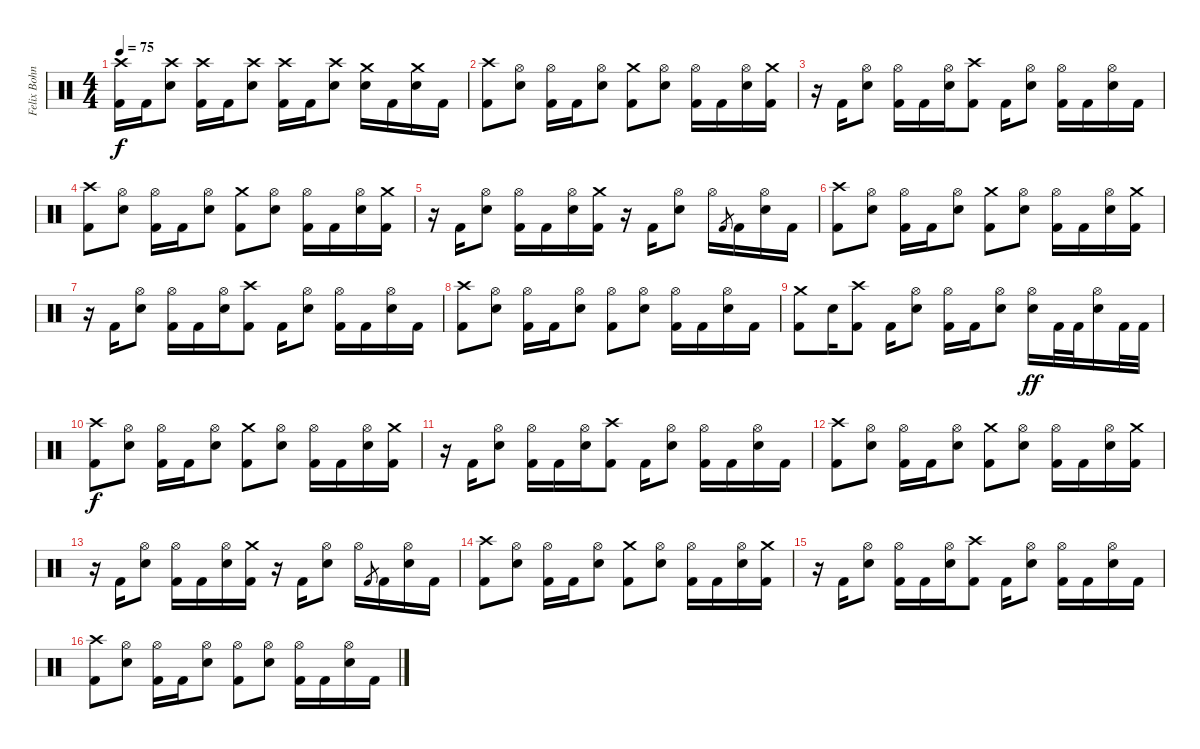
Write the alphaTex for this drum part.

\track ("Felix Bohnke" "Felix Bohn") {instrument percussion}
\staff {score}
\articulation defaults
\ts (4 4)
\tempo 75
\clef neutral
\ks c
("Crash high (hit)" "Kick (hit) 2").16{dy f} "Kick (hit) 2".16 ("Crash high (hit)" "Snare (hit) 2").8 ("Crash high (hit)" "Kick (hit) 2").16 "Kick (hit) 2".16 ("Crash high (hit)" "Snare (hit) 2").8 ("Crash high (hit)" "Kick (hit) 2").16 "Kick (hit) 2".16 ("Crash high (hit)" "Snare (hit) 2").8 ("Crash medium (hit)" "Snare (hit) 2").16 "Kick (hit) 2".16 ("Crash medium (hit)" "Snare (hit) 2").16 "Kick (hit) 2".16 |
("Crash high (hit)" "Kick (hit) 2").8 ("Hi-Hat (open)" "Snare (hit) 2").8 ("Hi-Hat (open)" "Kick (hit) 2").16 "Kick (hit) 2".16 ("Hi-Hat (open)" "Snare (hit) 2").8 ("Crash medium (hit)" "Kick (hit) 2").8 ("Hi-Hat (open)" "Snare (hit) 2").8 ("Hi-Hat (open)" "Kick (hit) 2").16 "Kick (hit) 2".16 ("Hi-Hat (open)" "Snare (hit) 2").16 ("Crash medium (hit)" "Kick (hit) 2").16 |
r.16 "Kick (hit) 2".16 ("Hi-Hat (open)" "Snare (hit) 2").8 ("Hi-Hat (open)" "Kick (hit) 2").16 "Kick (hit) 2".16 ("Hi-Hat (open)" "Snare (hit) 2").16 ("Crash high (hit)" "Kick (hit) 2").8 "Kick (hit) 2".16 ("Hi-Hat (open)" "Snare (hit) 2").8 ("Hi-Hat (open)" "Kick (hit) 2").16 "Kick (hit) 2".16 ("Hi-Hat (open)" "Snare (hit) 2").16 "Kick (hit) 2".16 |
("Crash high (hit)" "Kick (hit) 2").8 ("Hi-Hat (open)" "Snare (hit) 2").8 ("Hi-Hat (open)" "Kick (hit) 2").16 "Kick (hit) 2".16 ("Hi-Hat (open)" "Snare (hit) 2").8 ("Crash medium (hit)" "Kick (hit) 2").8 ("Hi-Hat (open)" "Snare (hit) 2").8 ("Hi-Hat (open)" "Kick (hit) 2").16 "Kick (hit) 2".16 ("Hi-Hat (open)" "Snare (hit) 2").16 ("Crash medium (hit)" "Kick (hit) 2").16 |
r.16 "Kick (hit) 2".16 ("Hi-Hat (open)" "Snare (hit) 2").8 ("Hi-Hat (open)" "Kick (hit) 2").16 "Kick (hit) 2".16 ("Hi-Hat (open)" "Snare (hit) 2").16 ("Crash medium (hit)" "Kick (hit) 2").16 r.16 "Kick (hit) 2".16 ("Hi-Hat (open)" "Snare (hit) 2").8 "Hi-Hat (open)".16 "Kick (hit) 2".8{gr} "Kick (hit) 2".16 ("Hi-Hat (open)" "Snare (hit) 2").16 "Kick (hit) 2".16 |
("Crash high (hit)" "Kick (hit) 2").8 ("Hi-Hat (open)" "Snare (hit) 2").8 ("Hi-Hat (open)" "Kick (hit) 2").16 "Kick (hit) 2".16 ("Hi-Hat (open)" "Snare (hit) 2").8 ("Crash medium (hit)" "Kick (hit) 2").8 ("Hi-Hat (open)" "Snare (hit) 2").8 ("Hi-Hat (open)" "Kick (hit) 2").16 "Kick (hit) 2".16 ("Hi-Hat (open)" "Snare (hit) 2").16 ("Crash medium (hit)" "Kick (hit) 2").16 |
r.16 "Kick (hit) 2".16 ("Hi-Hat (open)" "Snare (hit) 2").8 ("Hi-Hat (open)" "Kick (hit) 2").16 "Kick (hit) 2".16 ("Hi-Hat (open)" "Snare (hit) 2").16 ("Crash high (hit)" "Kick (hit) 2").8 "Kick (hit) 2".16 ("Hi-Hat (open)" "Snare (hit) 2").8 ("Hi-Hat (open)" "Kick (hit) 2").16 "Kick (hit) 2".16 ("Hi-Hat (open)" "Snare (hit) 2").16 "Kick (hit) 2".16 |
("Crash high (hit)" "Kick (hit) 2").8 ("Hi-Hat (open)" "Snare (hit) 2").8 ("Hi-Hat (open)" "Kick (hit) 2").16 "Kick (hit) 2".16 ("Hi-Hat (open)" "Snare (hit) 2").8 ("Hi-Hat (open)" "Kick (hit) 2").8 ("Hi-Hat (open)" "Snare (hit) 2").8 ("Hi-Hat (open)" "Kick (hit) 2").16 "Kick (hit) 2".16 ("Hi-Hat (open)" "Snare (hit) 2").16 "Kick (hit) 2".16 |
("Crash medium (hit)" "Kick (hit) 2").8 "Snare (hit) 2".16 ("Crash high (hit)" "Kick (hit) 2").8 "Kick (hit) 2".16 ("Hi-Hat (open)" "Snare (hit) 2").8 ("Hi-Hat (open)" "Kick (hit) 2").16 "Kick (hit) 2".16 ("Hi-Hat (open)" "Snare (hit) 2").8 ("Hi-Hat (open)" "Snare (hit) 2").16{dy ff} "Kick (hit) 2".32 "Kick (hit) 2".32 ("Hi-Hat (open)" "Snare (hit) 2").16 "Kick (hit) 2".32 "Kick (hit) 2".32 |
("Crash high (hit)" "Kick (hit) 2").8{dy f} ("Hi-Hat (open)" "Snare (hit) 2").8 ("Hi-Hat (open)" "Kick (hit) 2").16 "Kick (hit) 2".16 ("Hi-Hat (open)" "Snare (hit) 2").8 ("Crash medium (hit)" "Kick (hit) 2").8 ("Hi-Hat (open)" "Snare (hit) 2").8 ("Hi-Hat (open)" "Kick (hit) 2").16 "Kick (hit) 2".16 ("Hi-Hat (open)" "Snare (hit) 2").16 ("Crash medium (hit)" "Kick (hit) 2").16 |
r.16 "Kick (hit) 2".16 ("Hi-Hat (open)" "Snare (hit) 2").8 ("Hi-Hat (open)" "Kick (hit) 2").16 "Kick (hit) 2".16 ("Hi-Hat (open)" "Snare (hit) 2").16 ("Crash high (hit)" "Kick (hit) 2").8 "Kick (hit) 2".16 ("Hi-Hat (open)" "Snare (hit) 2").8 ("Hi-Hat (open)" "Kick (hit) 2").16 "Kick (hit) 2".16 ("Hi-Hat (open)" "Snare (hit) 2").16 "Kick (hit) 2".16 |
("Crash high (hit)" "Kick (hit) 2").8 ("Hi-Hat (open)" "Snare (hit) 2").8 ("Hi-Hat (open)" "Kick (hit) 2").16 "Kick (hit) 2".16 ("Hi-Hat (open)" "Snare (hit) 2").8 ("Crash medium (hit)" "Kick (hit) 2").8 ("Hi-Hat (open)" "Snare (hit) 2").8 ("Hi-Hat (open)" "Kick (hit) 2").16 "Kick (hit) 2".16 ("Hi-Hat (open)" "Snare (hit) 2").16 ("Crash medium (hit)" "Kick (hit) 2").16 |
r.16 "Kick (hit) 2".16 ("Hi-Hat (open)" "Snare (hit) 2").8 ("Hi-Hat (open)" "Kick (hit) 2").16 "Kick (hit) 2".16 ("Hi-Hat (open)" "Snare (hit) 2").16 ("Crash medium (hit)" "Kick (hit) 2").16 r.16 "Kick (hit) 2".16 ("Hi-Hat (open)" "Snare (hit) 2").8 "Hi-Hat (open)".16 "Kick (hit) 2".8{gr} "Kick (hit) 2".16 ("Hi-Hat (open)" "Snare (hit) 2").16 "Kick (hit) 2".16 |
("Crash high (hit)" "Kick (hit) 2").8 ("Hi-Hat (open)" "Snare (hit) 2").8 ("Hi-Hat (open)" "Kick (hit) 2").16 "Kick (hit) 2".16 ("Hi-Hat (open)" "Snare (hit) 2").8 ("Crash medium (hit)" "Kick (hit) 2").8 ("Hi-Hat (open)" "Snare (hit) 2").8 ("Hi-Hat (open)" "Kick (hit) 2").16 "Kick (hit) 2".16 ("Hi-Hat (open)" "Snare (hit) 2").16 ("Crash medium (hit)" "Kick (hit) 2").16 |
r.16 "Kick (hit) 2".16 ("Hi-Hat (open)" "Snare (hit) 2").8 ("Hi-Hat (open)" "Kick (hit) 2").16 "Kick (hit) 2".16 ("Hi-Hat (open)" "Snare (hit) 2").16 ("Crash high (hit)" "Kick (hit) 2").8 "Kick (hit) 2".16 ("Hi-Hat (open)" "Snare (hit) 2").8 ("Hi-Hat (open)" "Kick (hit) 2").16 "Kick (hit) 2".16 ("Hi-Hat (open)" "Snare (hit) 2").16 "Kick (hit) 2".16 |
("Crash high (hit)" "Kick (hit) 2").8 ("Hi-Hat (open)" "Snare (hit) 2").8 ("Hi-Hat (open)" "Kick (hit) 2").16 "Kick (hit) 2".16 ("Hi-Hat (open)" "Snare (hit) 2").8 ("Hi-Hat (open)" "Kick (hit) 2").8 ("Hi-Hat (open)" "Snare (hit) 2").8 ("Hi-Hat (open)" "Kick (hit) 2").16 "Kick (hit) 2".16 ("Hi-Hat (open)" "Snare (hit) 2").16 "Kick (hit) 2".16
